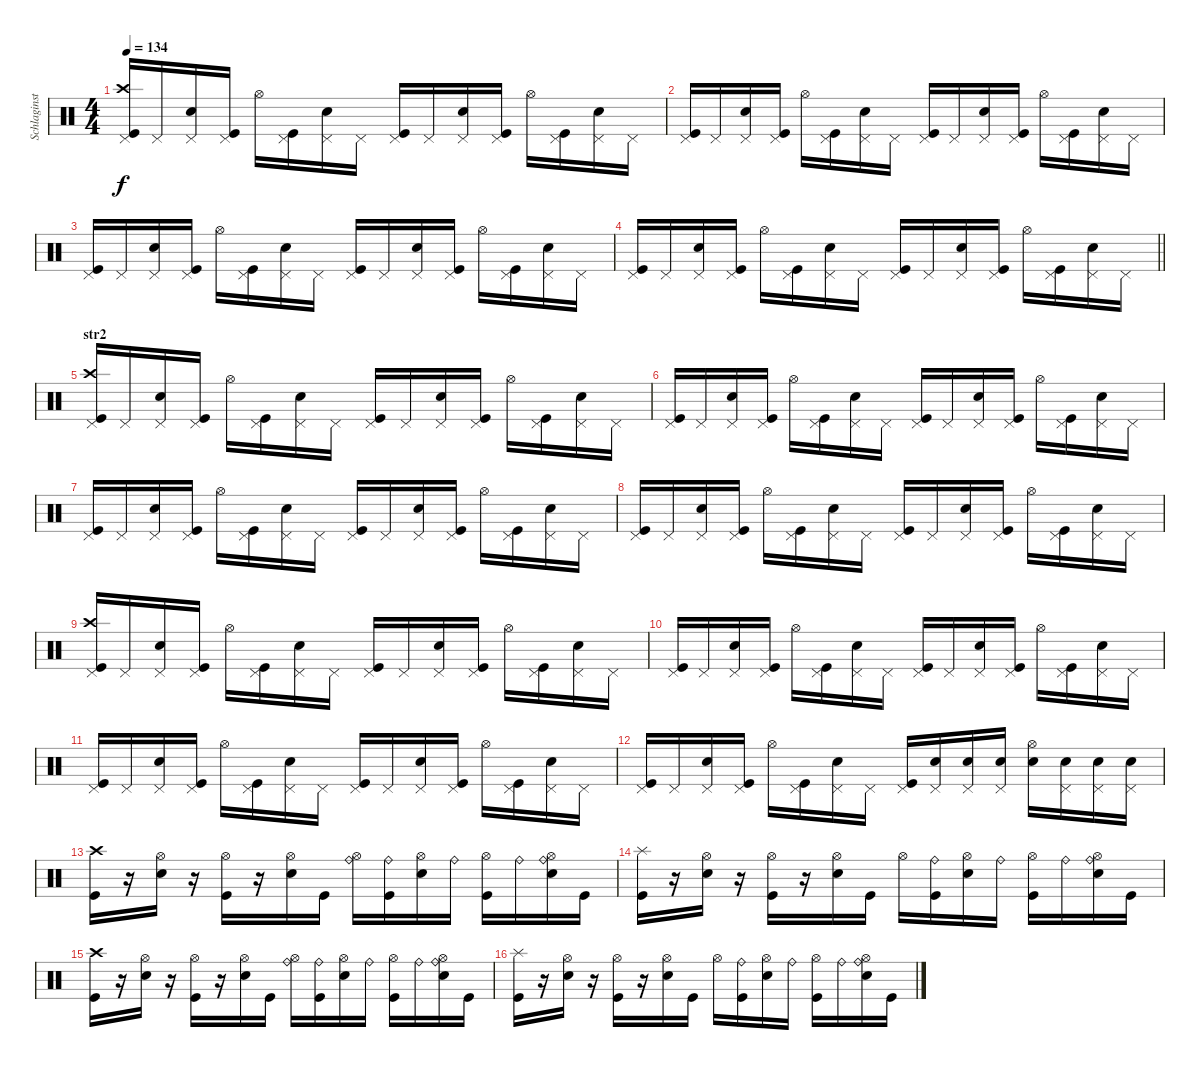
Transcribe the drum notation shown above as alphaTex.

\track ("Schlaginstrumente - Auswahl" "Schlaginst") {instrument percussion}
\staff {score}
\articulation defaults
\ts (4 4)
\tempo 134
\clef neutral
\ks c
("Pedal Hi-Hat (hit)" "Crash high (hit)" "Kick (hit)").16{dy f} "Pedal Hi-Hat (hit)".16 ("Pedal Hi-Hat (hit)" "Snare (hit) 2").16 ("Pedal Hi-Hat (hit)" "Kick (hit)").16 "Hi-Hat (open)".16 ("Pedal Hi-Hat (hit)" "Kick (hit)").16 ("Pedal Hi-Hat (hit)" "Snare (hit) 2").16 "Pedal Hi-Hat (hit)".16 ("Pedal Hi-Hat (hit)" "Kick (hit)").16 "Pedal Hi-Hat (hit)".16 ("Pedal Hi-Hat (hit)" "Snare (hit) 2").16 ("Pedal Hi-Hat (hit)" "Kick (hit)").16 "Hi-Hat (open)".16 ("Pedal Hi-Hat (hit)" "Kick (hit)").16 ("Pedal Hi-Hat (hit)" "Snare (hit) 2").16 "Pedal Hi-Hat (hit)".16 |
("Pedal Hi-Hat (hit)" "Kick (hit)").16 "Pedal Hi-Hat (hit)".16 ("Pedal Hi-Hat (hit)" "Snare (hit) 2").16 ("Pedal Hi-Hat (hit)" "Kick (hit)").16 "Hi-Hat (open)".16 ("Pedal Hi-Hat (hit)" "Kick (hit)").16 ("Pedal Hi-Hat (hit)" "Snare (hit) 2").16 "Pedal Hi-Hat (hit)".16 ("Pedal Hi-Hat (hit)" "Kick (hit)").16 "Pedal Hi-Hat (hit)".16 ("Pedal Hi-Hat (hit)" "Snare (hit) 2").16 ("Pedal Hi-Hat (hit)" "Kick (hit)").16 "Hi-Hat (open)".16 ("Pedal Hi-Hat (hit)" "Kick (hit)").16 ("Pedal Hi-Hat (hit)" "Snare (hit) 2").16 "Pedal Hi-Hat (hit)".16 |
("Pedal Hi-Hat (hit)" "Kick (hit)").16 "Pedal Hi-Hat (hit)".16 ("Pedal Hi-Hat (hit)" "Snare (hit) 2").16 ("Pedal Hi-Hat (hit)" "Kick (hit)").16 "Hi-Hat (open)".16 ("Pedal Hi-Hat (hit)" "Kick (hit)").16 ("Pedal Hi-Hat (hit)" "Snare (hit) 2").16 "Pedal Hi-Hat (hit)".16 ("Pedal Hi-Hat (hit)" "Kick (hit)").16 "Pedal Hi-Hat (hit)".16 ("Pedal Hi-Hat (hit)" "Snare (hit) 2").16 ("Pedal Hi-Hat (hit)" "Kick (hit)").16 "Hi-Hat (open)".16 ("Pedal Hi-Hat (hit)" "Kick (hit)").16 ("Pedal Hi-Hat (hit)" "Snare (hit) 2").16 "Pedal Hi-Hat (hit)".16 |
\barLineRight lightlight
("Pedal Hi-Hat (hit)" "Kick (hit)").16 "Pedal Hi-Hat (hit)".16 ("Pedal Hi-Hat (hit)" "Snare (hit) 2").16 ("Pedal Hi-Hat (hit)" "Kick (hit)").16 "Hi-Hat (open)".16 ("Pedal Hi-Hat (hit)" "Kick (hit)").16 ("Pedal Hi-Hat (hit)" "Snare (hit) 2").16 "Pedal Hi-Hat (hit)".16 ("Pedal Hi-Hat (hit)" "Kick (hit)").16 "Pedal Hi-Hat (hit)".16 ("Pedal Hi-Hat (hit)" "Snare (hit) 2").16 ("Pedal Hi-Hat (hit)" "Kick (hit)").16 "Hi-Hat (open)".16 ("Pedal Hi-Hat (hit)" "Kick (hit)").16 ("Pedal Hi-Hat (hit)" "Snare (hit) 2").16 "Pedal Hi-Hat (hit)".16 |
\section ("" "str2")
("Pedal Hi-Hat (hit)" "Crash high (hit)" "Kick (hit)").16 "Pedal Hi-Hat (hit)".16 ("Pedal Hi-Hat (hit)" "Snare (hit) 2").16 ("Pedal Hi-Hat (hit)" "Kick (hit)").16 "Hi-Hat (open)".16 ("Pedal Hi-Hat (hit)" "Kick (hit)").16 ("Pedal Hi-Hat (hit)" "Snare (hit) 2").16 "Pedal Hi-Hat (hit)".16 ("Pedal Hi-Hat (hit)" "Kick (hit)").16 "Pedal Hi-Hat (hit)".16 ("Pedal Hi-Hat (hit)" "Snare (hit) 2").16 ("Pedal Hi-Hat (hit)" "Kick (hit)").16 "Hi-Hat (open)".16 ("Pedal Hi-Hat (hit)" "Kick (hit)").16 ("Pedal Hi-Hat (hit)" "Snare (hit) 2").16 "Pedal Hi-Hat (hit)".16 |
("Pedal Hi-Hat (hit)" "Kick (hit)").16 "Pedal Hi-Hat (hit)".16 ("Pedal Hi-Hat (hit)" "Snare (hit) 2").16 ("Pedal Hi-Hat (hit)" "Kick (hit)").16 "Hi-Hat (open)".16 ("Pedal Hi-Hat (hit)" "Kick (hit)").16 ("Pedal Hi-Hat (hit)" "Snare (hit) 2").16 "Pedal Hi-Hat (hit)".16 ("Pedal Hi-Hat (hit)" "Kick (hit)").16 "Pedal Hi-Hat (hit)".16 ("Pedal Hi-Hat (hit)" "Snare (hit) 2").16 ("Pedal Hi-Hat (hit)" "Kick (hit)").16 "Hi-Hat (open)".16 ("Pedal Hi-Hat (hit)" "Kick (hit)").16 ("Pedal Hi-Hat (hit)" "Snare (hit) 2").16 "Pedal Hi-Hat (hit)".16 |
("Pedal Hi-Hat (hit)" "Kick (hit)").16 "Pedal Hi-Hat (hit)".16 ("Pedal Hi-Hat (hit)" "Snare (hit) 2").16 ("Pedal Hi-Hat (hit)" "Kick (hit)").16 "Hi-Hat (open)".16 ("Pedal Hi-Hat (hit)" "Kick (hit)").16 ("Pedal Hi-Hat (hit)" "Snare (hit) 2").16 "Pedal Hi-Hat (hit)".16 ("Pedal Hi-Hat (hit)" "Kick (hit)").16 "Pedal Hi-Hat (hit)".16 ("Pedal Hi-Hat (hit)" "Snare (hit) 2").16 ("Pedal Hi-Hat (hit)" "Kick (hit)").16 "Hi-Hat (open)".16 ("Pedal Hi-Hat (hit)" "Kick (hit)").16 ("Pedal Hi-Hat (hit)" "Snare (hit) 2").16 "Pedal Hi-Hat (hit)".16 |
("Pedal Hi-Hat (hit)" "Kick (hit)").16 "Pedal Hi-Hat (hit)".16 ("Pedal Hi-Hat (hit)" "Snare (hit) 2").16 ("Pedal Hi-Hat (hit)" "Kick (hit)").16 "Hi-Hat (open)".16 ("Pedal Hi-Hat (hit)" "Kick (hit)").16 ("Pedal Hi-Hat (hit)" "Snare (hit) 2").16 "Pedal Hi-Hat (hit)".16 ("Pedal Hi-Hat (hit)" "Kick (hit)").16 "Pedal Hi-Hat (hit)".16 ("Pedal Hi-Hat (hit)" "Snare (hit) 2").16 ("Pedal Hi-Hat (hit)" "Kick (hit)").16 "Hi-Hat (open)".16 ("Pedal Hi-Hat (hit)" "Kick (hit)").16 ("Pedal Hi-Hat (hit)" "Snare (hit) 2").16 "Pedal Hi-Hat (hit)".16 |
("Pedal Hi-Hat (hit)" "Crash high (hit)" "Kick (hit)").16 "Pedal Hi-Hat (hit)".16 ("Pedal Hi-Hat (hit)" "Snare (hit) 2").16 ("Pedal Hi-Hat (hit)" "Kick (hit)").16 "Hi-Hat (open)".16 ("Pedal Hi-Hat (hit)" "Kick (hit)").16 ("Pedal Hi-Hat (hit)" "Snare (hit) 2").16 "Pedal Hi-Hat (hit)".16 ("Pedal Hi-Hat (hit)" "Kick (hit)").16 "Pedal Hi-Hat (hit)".16 ("Pedal Hi-Hat (hit)" "Snare (hit) 2").16 ("Pedal Hi-Hat (hit)" "Kick (hit)").16 "Hi-Hat (open)".16 ("Pedal Hi-Hat (hit)" "Kick (hit)").16 ("Pedal Hi-Hat (hit)" "Snare (hit) 2").16 "Pedal Hi-Hat (hit)".16 |
("Pedal Hi-Hat (hit)" "Kick (hit)").16 "Pedal Hi-Hat (hit)".16 ("Pedal Hi-Hat (hit)" "Snare (hit) 2").16 ("Pedal Hi-Hat (hit)" "Kick (hit)").16 "Hi-Hat (open)".16 ("Pedal Hi-Hat (hit)" "Kick (hit)").16 ("Pedal Hi-Hat (hit)" "Snare (hit) 2").16 "Pedal Hi-Hat (hit)".16 ("Pedal Hi-Hat (hit)" "Kick (hit)").16 "Pedal Hi-Hat (hit)".16 ("Pedal Hi-Hat (hit)" "Snare (hit) 2").16 ("Pedal Hi-Hat (hit)" "Kick (hit)").16 "Hi-Hat (open)".16 ("Pedal Hi-Hat (hit)" "Kick (hit)").16 ("Pedal Hi-Hat (hit)" "Snare (hit) 2").16 "Pedal Hi-Hat (hit)".16 |
("Pedal Hi-Hat (hit)" "Kick (hit)").16 "Pedal Hi-Hat (hit)".16 ("Pedal Hi-Hat (hit)" "Snare (hit) 2").16 ("Pedal Hi-Hat (hit)" "Kick (hit)").16 "Hi-Hat (open)".16 ("Pedal Hi-Hat (hit)" "Kick (hit)").16 ("Pedal Hi-Hat (hit)" "Snare (hit) 2").16 "Pedal Hi-Hat (hit)".16 ("Pedal Hi-Hat (hit)" "Kick (hit)").16 "Pedal Hi-Hat (hit)".16 ("Pedal Hi-Hat (hit)" "Snare (hit) 2").16 ("Pedal Hi-Hat (hit)" "Kick (hit)").16 "Hi-Hat (open)".16 ("Pedal Hi-Hat (hit)" "Kick (hit)").16 ("Pedal Hi-Hat (hit)" "Snare (hit) 2").16 "Pedal Hi-Hat (hit)".16 |
("Pedal Hi-Hat (hit)" "Kick (hit)").16 "Pedal Hi-Hat (hit)".16 ("Pedal Hi-Hat (hit)" "Snare (hit) 2").16 ("Pedal Hi-Hat (hit)" "Kick (hit)").16 "Hi-Hat (open)".16 ("Pedal Hi-Hat (hit)" "Kick (hit)").16 ("Pedal Hi-Hat (hit)" "Snare (hit) 2").16 "Pedal Hi-Hat (hit)".16 ("Pedal Hi-Hat (hit)" "Kick (hit)").16 ("Pedal Hi-Hat (hit)" "Snare (hit) 2").16 ("Pedal Hi-Hat (hit)" "Snare (hit) 2").16 ("Pedal Hi-Hat (hit)" "Snare (hit) 2").16 ("Hi-Hat (open)" "Snare (hit) 2").16 ("Pedal Hi-Hat (hit)" "Snare (hit) 2").16 ("Pedal Hi-Hat (hit)" "Snare (hit) 2").16 ("Pedal Hi-Hat (hit)" "Snare (hit) 2").16 |
("Crash high (hit)" "Kick (hit)").16 r.16 ("Hi-Hat (open)" "Snare (hit) 2").16 r.16 ("Hi-Hat (open)" "Kick (hit)").16 r.16 ("Hi-Hat (open)" "Snare (hit) 2").16 "Kick (hit)".16 ("Hi-Hat (open)" "Ride (bell)").16 ("Kick (hit)" "Ride (bell)").16 ("Hi-Hat (open)" "Snare (hit) 2").16 "Ride (bell)".16 ("Hi-Hat (open)" "Kick (hit)").16 "Ride (bell)".16 ("Hi-Hat (open)" "Snare (hit) 2" "Ride (bell)").16 "Kick (hit)".16 |
("Splash (hit)" "Kick (hit)").16 r.16 ("Hi-Hat (open)" "Snare (hit) 2").16 r.16 ("Hi-Hat (open)" "Kick (hit)").16 r.16 ("Hi-Hat (open)" "Snare (hit) 2").16 "Kick (hit)".16 "Hi-Hat (open)".16 ("Kick (hit)" "Ride (bell)").16 ("Hi-Hat (open)" "Snare (hit) 2").16 "Ride (bell)".16 ("Hi-Hat (open)" "Kick (hit)").16 "Ride (bell)".16 ("Hi-Hat (open)" "Snare (hit) 2" "Ride (bell)").16 "Kick (hit)".16 |
("Crash high (hit)" "Kick (hit)").16 r.16 ("Hi-Hat (open)" "Snare (hit) 2").16 r.16 ("Hi-Hat (open)" "Kick (hit)").16 r.16 ("Hi-Hat (open)" "Snare (hit) 2").16 "Kick (hit)".16 ("Hi-Hat (open)" "Ride (bell)").16 ("Kick (hit)" "Ride (bell)").16 ("Hi-Hat (open)" "Snare (hit) 2").16 "Ride (bell)".16 ("Hi-Hat (open)" "Kick (hit)").16 "Ride (bell)".16 ("Hi-Hat (open)" "Snare (hit) 2" "Ride (bell)").16 "Kick (hit)".16 |
("Splash (hit)" "Kick (hit)").16 r.16 ("Hi-Hat (open)" "Snare (hit) 2").16 r.16 ("Hi-Hat (open)" "Kick (hit)").16 r.16 ("Hi-Hat (open)" "Snare (hit) 2").16 "Kick (hit)".16 "Hi-Hat (open)".16 ("Kick (hit)" "Ride (bell)").16 ("Hi-Hat (open)" "Snare (hit) 2").16 "Ride (bell)".16 ("Hi-Hat (open)" "Kick (hit)").16 "Ride (bell)".16 ("Hi-Hat (open)" "Snare (hit) 2" "Ride (bell)").16 "Kick (hit)".16
